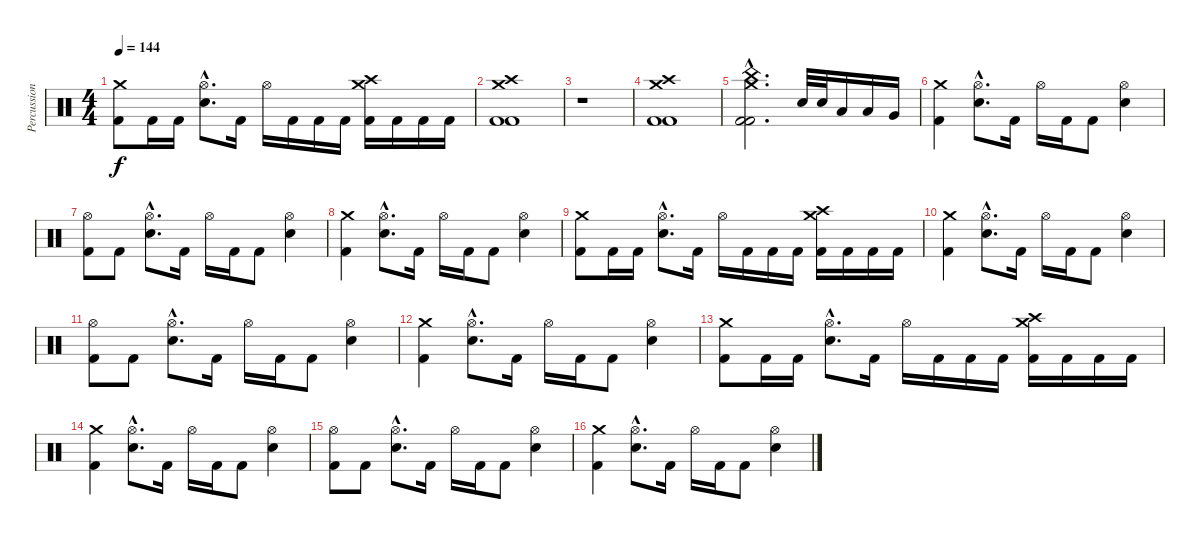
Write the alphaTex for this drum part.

\track ("Percussion" "Percussion") {instrument percussion}
\staff {score}
\articulation defaults
\ts (4 4)
\tempo 144
\clef neutral
\ks c
("Crash medium (hit)" "Kick (hit) 2").8{dy f} "Kick (hit) 2".16 "Kick (hit) 2".16 ("Hi-Hat (open)"{hac} "Electric Snare (hit)"{hac}).8{d} "Kick (hit) 2".16 "Hi-Hat (open)".16 "Kick (hit) 2".16 "Kick (hit) 2".16 "Kick (hit) 2".16 ("Crash high (hit)" "Crash medium (hit)" "Kick (hit) 2").16 "Kick (hit) 2".16 "Kick (hit) 2".16 "Kick (hit) 2".16 |
("Crash high (hit)" "Crash medium (hit)" "Kick (hit) 2" "Kick (hit) 2").1 |
r.1 |
("Crash high (hit)" "Crash medium (hit)" "Kick (hit) 2" "Kick (hit) 2").1 |
("China (hit)"{hac} "Crash medium (hit)"{hac} "Kick (hit) 2"{hac} "Kick (hit) 2"{hac}).2{d} "Electric Snare (hit)".32 "Electric Snare (hit)".32 "Low Tom (hit)".16 "Low Tom (hit)".16 "Very Low Tom (hit)".16 |
("Crash medium (hit)" "Kick (hit) 2").4 ("Hi-Hat (open)"{hac} "Electric Snare (hit)"{hac}).8{d} "Kick (hit) 2".16 "Hi-Hat (open)".16 "Kick (hit) 2".16 "Kick (hit) 2".8 ("Hi-Hat (open)" "Electric Snare (hit)").4 |
("Hi-Hat (open)" "Kick (hit) 2").8 "Kick (hit) 2".8 ("Hi-Hat (open)"{hac} "Electric Snare (hit)"{hac}).8{d} "Kick (hit) 2".16 "Hi-Hat (open)".16 "Kick (hit) 2".16 "Kick (hit) 2".8 ("Hi-Hat (open)" "Electric Snare (hit)").4 |
("Crash medium (hit)" "Kick (hit) 2").4 ("Hi-Hat (open)"{hac} "Electric Snare (hit)"{hac}).8{d} "Kick (hit) 2".16 "Hi-Hat (open)".16 "Kick (hit) 2".16 "Kick (hit) 2".8 ("Hi-Hat (open)" "Electric Snare (hit)").4 |
("Crash medium (hit)" "Kick (hit) 2").8 "Kick (hit) 2".16 "Kick (hit) 2".16 ("Hi-Hat (open)"{hac} "Electric Snare (hit)"{hac}).8{d} "Kick (hit) 2".16 "Hi-Hat (open)".16 "Kick (hit) 2".16 "Kick (hit) 2".16 "Kick (hit) 2".16 ("Crash high (hit)" "Crash medium (hit)" "Kick (hit) 2").16 "Kick (hit) 2".16 "Kick (hit) 2".16 "Kick (hit) 2".16 |
("Crash medium (hit)" "Kick (hit) 2").4 ("Hi-Hat (open)"{hac} "Electric Snare (hit)"{hac}).8{d} "Kick (hit) 2".16 "Hi-Hat (open)".16 "Kick (hit) 2".16 "Kick (hit) 2".8 ("Hi-Hat (open)" "Electric Snare (hit)").4 |
("Hi-Hat (open)" "Kick (hit) 2").8 "Kick (hit) 2".8 ("Hi-Hat (open)"{hac} "Electric Snare (hit)"{hac}).8{d} "Kick (hit) 2".16 "Hi-Hat (open)".16 "Kick (hit) 2".16 "Kick (hit) 2".8 ("Hi-Hat (open)" "Electric Snare (hit)").4 |
("Crash medium (hit)" "Kick (hit) 2").4 ("Hi-Hat (open)"{hac} "Electric Snare (hit)"{hac}).8{d} "Kick (hit) 2".16 "Hi-Hat (open)".16 "Kick (hit) 2".16 "Kick (hit) 2".8 ("Hi-Hat (open)" "Electric Snare (hit)").4 |
("Crash medium (hit)" "Kick (hit) 2").8 "Kick (hit) 2".16 "Kick (hit) 2".16 ("Hi-Hat (open)"{hac} "Electric Snare (hit)"{hac}).8{d} "Kick (hit) 2".16 "Hi-Hat (open)".16 "Kick (hit) 2".16 "Kick (hit) 2".16 "Kick (hit) 2".16 ("Crash high (hit)" "Crash medium (hit)" "Kick (hit) 2").16 "Kick (hit) 2".16 "Kick (hit) 2".16 "Kick (hit) 2".16 |
("Crash medium (hit)" "Kick (hit) 2").4 ("Hi-Hat (open)"{hac} "Electric Snare (hit)"{hac}).8{d} "Kick (hit) 2".16 "Hi-Hat (open)".16 "Kick (hit) 2".16 "Kick (hit) 2".8 ("Hi-Hat (open)" "Electric Snare (hit)").4 |
("Hi-Hat (open)" "Kick (hit) 2").8 "Kick (hit) 2".8 ("Hi-Hat (open)"{hac} "Electric Snare (hit)"{hac}).8{d} "Kick (hit) 2".16 "Hi-Hat (open)".16 "Kick (hit) 2".16 "Kick (hit) 2".8 ("Hi-Hat (open)" "Electric Snare (hit)").4 |
("Crash medium (hit)" "Kick (hit) 2").4 ("Hi-Hat (open)"{hac} "Electric Snare (hit)"{hac}).8{d} "Kick (hit) 2".16 "Hi-Hat (open)".16 "Kick (hit) 2".16 "Kick (hit) 2".8 ("Hi-Hat (open)" "Electric Snare (hit)").4
